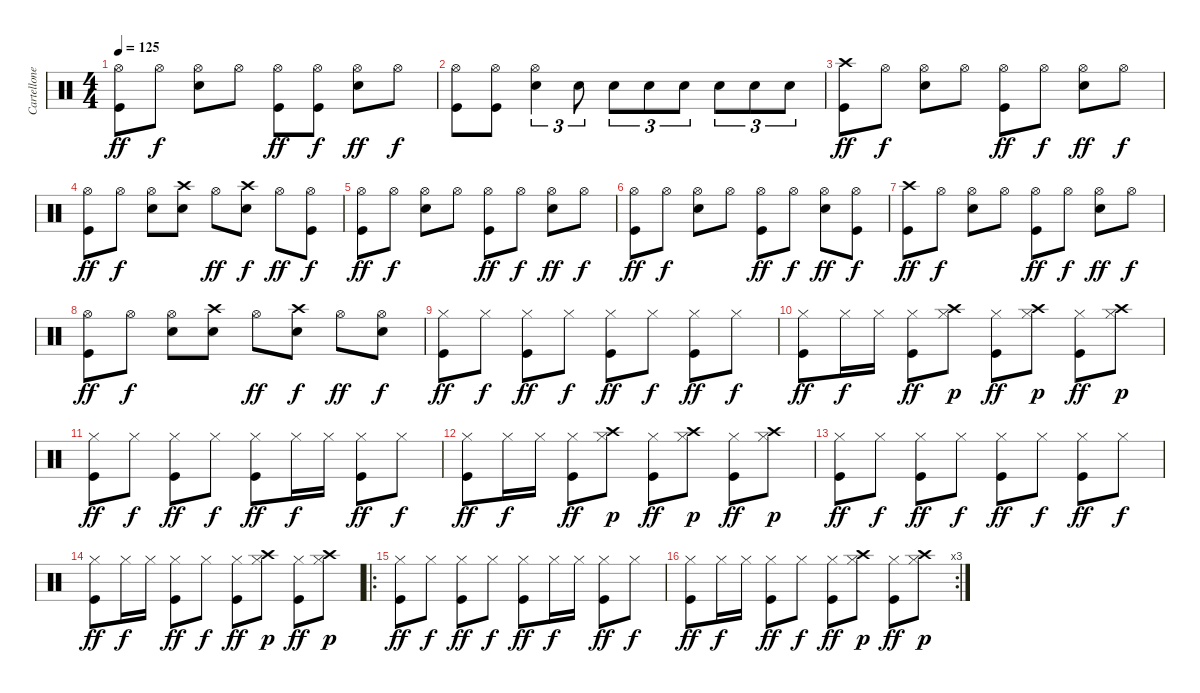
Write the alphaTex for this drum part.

\track ("Cartellone" "Cartellone") {instrument percussion}
\staff {score}
\articulation defaults
\ts (4 4)
\tempo 125
\clef neutral
\ks c
("Hi-Hat (open)" "Kick (hit)").8{dy ff} "Hi-Hat (open)".8{dy f} ("Hi-Hat (open)" "Snare (hit) 2").8 "Hi-Hat (open)".8 ("Hi-Hat (open)" "Kick (hit)").8{dy ff} ("Hi-Hat (open)" "Kick (hit)").8{dy f} ("Hi-Hat (open)" "Snare (hit) 2").8{dy ff} "Hi-Hat (open)".8{dy f} |
("Hi-Hat (open)" "Kick (hit)").8 ("Hi-Hat (open)" "Kick (hit)").8 ("Hi-Hat (open)" "Snare (hit) 2").4{tu (3 2)} "Snare (hit) 2".8{tu (3 2)} "Snare (hit) 2".8{tu (3 2)} "Snare (hit) 2".8{tu (3 2)} "Snare (hit) 2".8{tu (3 2)} "Snare (hit) 2".8{tu (3 2)} "Snare (hit) 2".8{tu (3 2)} "Snare (hit) 2".8{tu (3 2)} |
("Crash high (hit)" "Kick (hit)").8{dy ff} "Hi-Hat (open)".8{dy f} ("Hi-Hat (open)" "Snare (hit) 2").8 "Hi-Hat (open)".8 ("Hi-Hat (open)" "Kick (hit)").8{dy ff} "Hi-Hat (open)".8{dy f} ("Hi-Hat (open)" "Snare (hit) 2").8{dy ff} "Hi-Hat (open)".8{dy f} |
("Hi-Hat (open)" "Kick (hit)").8{dy ff} "Hi-Hat (open)".8{dy f} ("Hi-Hat (open)" "Snare (hit) 2").8 ("Crash high (hit)" "Snare (hit) 2").8 "Hi-Hat (open)".8{dy ff} ("Crash high (hit)" "Snare (hit) 2").8{dy f} "Hi-Hat (open)".8{dy ff} ("Hi-Hat (open)" "Kick (hit)").8{dy f} |
("Hi-Hat (open)" "Kick (hit)").8{dy ff} "Hi-Hat (open)".8{dy f} ("Hi-Hat (open)" "Snare (hit) 2").8 "Hi-Hat (open)".8 ("Hi-Hat (open)" "Kick (hit)").8{dy ff} "Hi-Hat (open)".8{dy f} ("Hi-Hat (open)" "Snare (hit) 2").8{dy ff} "Hi-Hat (open)".8{dy f} |
("Hi-Hat (open)" "Kick (hit)").8{dy ff} "Hi-Hat (open)".8{dy f} ("Hi-Hat (open)" "Snare (hit) 2").8 "Hi-Hat (open)".8 ("Hi-Hat (open)" "Kick (hit)").8{dy ff} "Hi-Hat (open)".8{dy f} ("Hi-Hat (open)" "Snare (hit) 2").8{dy ff} ("Hi-Hat (open)" "Kick (hit)").8{dy f} |
("Crash high (hit)" "Kick (hit)").8{dy ff} "Hi-Hat (open)".8{dy f} ("Hi-Hat (open)" "Snare (hit) 2").8 "Hi-Hat (open)".8 ("Hi-Hat (open)" "Kick (hit)").8{dy ff} "Hi-Hat (open)".8{dy f} ("Hi-Hat (open)" "Snare (hit) 2").8{dy ff} "Hi-Hat (open)".8{dy f} |
("Hi-Hat (open)" "Kick (hit)").8{dy ff} "Hi-Hat (open)".8{dy f} ("Hi-Hat (open)" "Snare (hit) 2").8 ("Crash high (hit)" "Snare (hit) 2").8 "Hi-Hat (open)".8{dy ff} ("Crash high (hit)" "Snare (hit) 2").8{dy f} "Hi-Hat (open)".8{dy ff} ("Hi-Hat (open)" "Snare (hit) 2").8{dy f} |
("Hi-Hat (closed)" "Kick (hit)").8{dy ff} "Hi-Hat (closed)".8{dy f} ("Hi-Hat (closed)" "Kick (hit)").8{dy ff} "Hi-Hat (closed)".8{dy f} ("Hi-Hat (closed)" "Kick (hit)").8{dy ff} "Hi-Hat (closed)".8{dy f} ("Hi-Hat (closed)" "Kick (hit)").8{dy ff} "Hi-Hat (closed)".8{dy f} |
("Hi-Hat (closed)" "Kick (hit)").8{dy ff} "Hi-Hat (closed)".16{dy f} "Hi-Hat (closed)".16 ("Hi-Hat (closed)" "Kick (hit)").8{dy ff} ("Hi-Hat (closed)" "Crash high (hit)").8{dy p} ("Hi-Hat (closed)" "Kick (hit)").8{dy ff} ("Hi-Hat (closed)" "Crash high (hit)").8{dy p} ("Hi-Hat (closed)" "Kick (hit)").8{dy ff} ("Hi-Hat (closed)" "Crash high (hit)").8{dy p} |
("Hi-Hat (closed)" "Kick (hit)").8{dy ff} "Hi-Hat (closed)".8{dy f} ("Hi-Hat (closed)" "Kick (hit)").8{dy ff} "Hi-Hat (closed)".8{dy f} ("Hi-Hat (closed)" "Kick (hit)").8{dy ff} "Hi-Hat (closed)".16{dy f} "Hi-Hat (closed)".16 ("Hi-Hat (closed)" "Kick (hit)").8{dy ff} "Hi-Hat (closed)".8{dy f} |
("Hi-Hat (closed)" "Kick (hit)").8{dy ff} "Hi-Hat (closed)".16{dy f} "Hi-Hat (closed)".16 ("Hi-Hat (closed)" "Kick (hit)").8{dy ff} ("Hi-Hat (closed)" "Crash high (hit)").8{dy p} ("Hi-Hat (closed)" "Kick (hit)").8{dy ff} ("Hi-Hat (closed)" "Crash high (hit)").8{dy p} ("Hi-Hat (closed)" "Kick (hit)").8{dy ff} ("Hi-Hat (closed)" "Crash high (hit)").8{dy p} |
("Hi-Hat (closed)" "Kick (hit)").8{dy ff} "Hi-Hat (closed)".8{dy f} ("Hi-Hat (closed)" "Kick (hit)").8{dy ff} "Hi-Hat (closed)".8{dy f} ("Hi-Hat (closed)" "Kick (hit)").8{dy ff} "Hi-Hat (closed)".8{dy f} ("Hi-Hat (closed)" "Kick (hit)").8{dy ff} "Hi-Hat (closed)".8{dy f} |
("Hi-Hat (closed)" "Kick (hit)").8{dy ff} "Hi-Hat (closed)".16{dy f} "Hi-Hat (closed)".16 ("Hi-Hat (closed)" "Kick (hit)").8{dy ff} "Hi-Hat (closed)".8{dy f} ("Hi-Hat (closed)" "Kick (hit)").8{dy ff} ("Hi-Hat (closed)" "Crash high (hit)").8{dy p} ("Hi-Hat (closed)" "Kick (hit)").8{dy ff} ("Hi-Hat (closed)" "Crash high (hit)").8{dy p} |
\ro
("Hi-Hat (closed)" "Kick (hit)").8{dy ff} "Hi-Hat (closed)".8{dy f} ("Hi-Hat (closed)" "Kick (hit)").8{dy ff} "Hi-Hat (closed)".8{dy f} ("Hi-Hat (closed)" "Kick (hit)").8{dy ff} "Hi-Hat (closed)".16{dy f} "Hi-Hat (closed)".16 ("Hi-Hat (closed)" "Kick (hit)").8{dy ff} "Hi-Hat (closed)".8{dy f} |
\rc 3
("Hi-Hat (closed)" "Kick (hit)").8{dy ff} "Hi-Hat (closed)".16{dy f} "Hi-Hat (closed)".16 ("Hi-Hat (closed)" "Kick (hit)").8{dy ff} "Hi-Hat (closed)".8{dy f} ("Hi-Hat (closed)" "Kick (hit)").8{dy ff} ("Hi-Hat (closed)" "Crash high (hit)").8{dy p} ("Hi-Hat (closed)" "Kick (hit)").8{dy ff} ("Hi-Hat (closed)" "Crash high (hit)").8{dy p}
